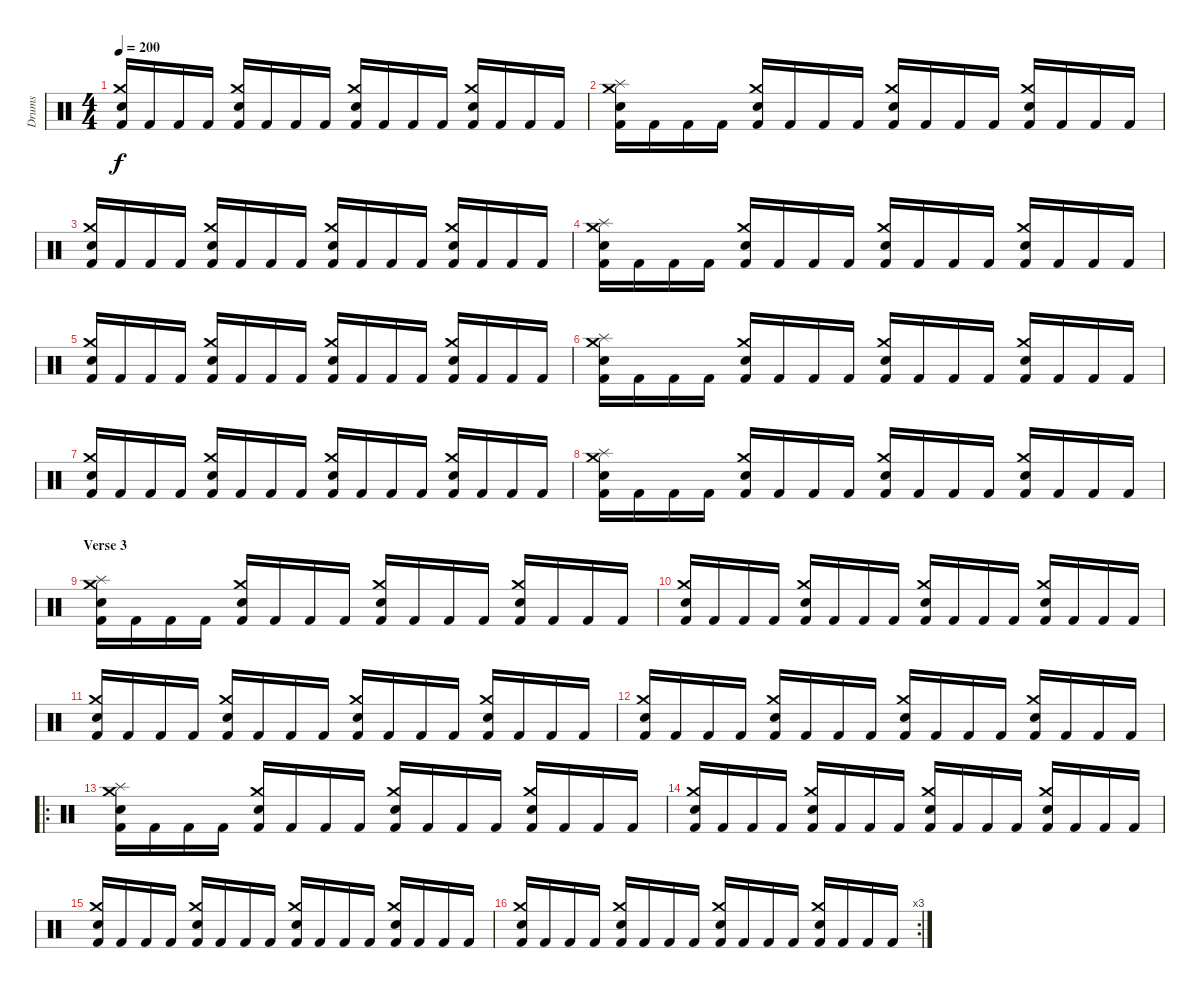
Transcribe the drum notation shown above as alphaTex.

\track ("Drums" "Drums") {instrument percussion}
\staff {score}
\articulation defaults
\ts (4 4)
\tempo 200
\clef neutral
\ks c
("Kick (hit) 2" "Crash medium (hit)" "Snare (hit) 2").16{dy f} "Kick (hit) 2".16 "Kick (hit) 2".16 "Kick (hit) 2".16 ("Kick (hit) 2" "Crash medium (hit)" "Snare (hit) 2").16 "Kick (hit) 2".16 "Kick (hit) 2".16 "Kick (hit) 2".16 ("Kick (hit) 2" "Crash medium (hit)" "Snare (hit) 2").16 "Kick (hit) 2".16 "Kick (hit) 2".16 "Kick (hit) 2".16 ("Kick (hit) 2" "Crash medium (hit)" "Snare (hit) 2").16 "Kick (hit) 2".16 "Kick (hit) 2".16 "Kick (hit) 2".16 |
("Kick (hit) 2" "Crash medium (hit)" "Snare (hit) 2" "Splash (hit)").16 "Kick (hit) 2".16 "Kick (hit) 2".16 "Kick (hit) 2".16 ("Kick (hit) 2" "Crash medium (hit)" "Snare (hit) 2").16 "Kick (hit) 2".16 "Kick (hit) 2".16 "Kick (hit) 2".16 ("Kick (hit) 2" "Crash medium (hit)" "Snare (hit) 2").16 "Kick (hit) 2".16 "Kick (hit) 2".16 "Kick (hit) 2".16 ("Kick (hit) 2" "Crash medium (hit)" "Snare (hit) 2").16 "Kick (hit) 2".16 "Kick (hit) 2".16 "Kick (hit) 2".16 |
("Kick (hit) 2" "Crash medium (hit)" "Snare (hit) 2").16 "Kick (hit) 2".16 "Kick (hit) 2".16 "Kick (hit) 2".16 ("Kick (hit) 2" "Crash medium (hit)" "Snare (hit) 2").16 "Kick (hit) 2".16 "Kick (hit) 2".16 "Kick (hit) 2".16 ("Kick (hit) 2" "Crash medium (hit)" "Snare (hit) 2").16 "Kick (hit) 2".16 "Kick (hit) 2".16 "Kick (hit) 2".16 ("Kick (hit) 2" "Crash medium (hit)" "Snare (hit) 2").16 "Kick (hit) 2".16 "Kick (hit) 2".16 "Kick (hit) 2".16 |
("Kick (hit) 2" "Crash medium (hit)" "Snare (hit) 2" "Splash (hit)").16 "Kick (hit) 2".16 "Kick (hit) 2".16 "Kick (hit) 2".16 ("Kick (hit) 2" "Crash medium (hit)" "Snare (hit) 2").16 "Kick (hit) 2".16 "Kick (hit) 2".16 "Kick (hit) 2".16 ("Kick (hit) 2" "Crash medium (hit)" "Snare (hit) 2").16 "Kick (hit) 2".16 "Kick (hit) 2".16 "Kick (hit) 2".16 ("Kick (hit) 2" "Crash medium (hit)" "Snare (hit) 2").16 "Kick (hit) 2".16 "Kick (hit) 2".16 "Kick (hit) 2".16 |
("Kick (hit) 2" "Crash medium (hit)" "Snare (hit) 2").16 "Kick (hit) 2".16 "Kick (hit) 2".16 "Kick (hit) 2".16 ("Kick (hit) 2" "Crash medium (hit)" "Snare (hit) 2").16 "Kick (hit) 2".16 "Kick (hit) 2".16 "Kick (hit) 2".16 ("Kick (hit) 2" "Crash medium (hit)" "Snare (hit) 2").16 "Kick (hit) 2".16 "Kick (hit) 2".16 "Kick (hit) 2".16 ("Kick (hit) 2" "Crash medium (hit)" "Snare (hit) 2").16 "Kick (hit) 2".16 "Kick (hit) 2".16 "Kick (hit) 2".16 |
("Kick (hit) 2" "Crash medium (hit)" "Snare (hit) 2" "Splash (hit)").16 "Kick (hit) 2".16 "Kick (hit) 2".16 "Kick (hit) 2".16 ("Kick (hit) 2" "Crash medium (hit)" "Snare (hit) 2").16 "Kick (hit) 2".16 "Kick (hit) 2".16 "Kick (hit) 2".16 ("Kick (hit) 2" "Crash medium (hit)" "Snare (hit) 2").16 "Kick (hit) 2".16 "Kick (hit) 2".16 "Kick (hit) 2".16 ("Kick (hit) 2" "Crash medium (hit)" "Snare (hit) 2").16 "Kick (hit) 2".16 "Kick (hit) 2".16 "Kick (hit) 2".16 |
("Kick (hit) 2" "Crash medium (hit)" "Snare (hit) 2").16 "Kick (hit) 2".16 "Kick (hit) 2".16 "Kick (hit) 2".16 ("Kick (hit) 2" "Crash medium (hit)" "Snare (hit) 2").16 "Kick (hit) 2".16 "Kick (hit) 2".16 "Kick (hit) 2".16 ("Kick (hit) 2" "Crash medium (hit)" "Snare (hit) 2").16 "Kick (hit) 2".16 "Kick (hit) 2".16 "Kick (hit) 2".16 ("Kick (hit) 2" "Crash medium (hit)" "Snare (hit) 2").16 "Kick (hit) 2".16 "Kick (hit) 2".16 "Kick (hit) 2".16 |
("Kick (hit) 2" "Crash medium (hit)" "Snare (hit) 2" "Splash (hit)").16 "Kick (hit) 2".16 "Kick (hit) 2".16 "Kick (hit) 2".16 ("Kick (hit) 2" "Crash medium (hit)" "Snare (hit) 2").16 "Kick (hit) 2".16 "Kick (hit) 2".16 "Kick (hit) 2".16 ("Kick (hit) 2" "Crash medium (hit)" "Snare (hit) 2").16 "Kick (hit) 2".16 "Kick (hit) 2".16 "Kick (hit) 2".16 ("Kick (hit) 2" "Crash medium (hit)" "Snare (hit) 2").16 "Kick (hit) 2".16 "Kick (hit) 2".16 "Kick (hit) 2".16 |
\section ("" "Verse 3")
("Kick (hit) 2" "Crash medium (hit)" "Snare (hit) 2" "Splash (hit)").16 "Kick (hit) 2".16 "Kick (hit) 2".16 "Kick (hit) 2".16 ("Kick (hit) 2" "Crash medium (hit)" "Snare (hit) 2").16 "Kick (hit) 2".16 "Kick (hit) 2".16 "Kick (hit) 2".16 ("Kick (hit) 2" "Crash medium (hit)" "Snare (hit) 2").16 "Kick (hit) 2".16 "Kick (hit) 2".16 "Kick (hit) 2".16 ("Kick (hit) 2" "Crash medium (hit)" "Snare (hit) 2").16 "Kick (hit) 2".16 "Kick (hit) 2".16 "Kick (hit) 2".16 |
("Kick (hit) 2" "Crash medium (hit)" "Snare (hit) 2").16 "Kick (hit) 2".16 "Kick (hit) 2".16 "Kick (hit) 2".16 ("Kick (hit) 2" "Crash medium (hit)" "Snare (hit) 2").16 "Kick (hit) 2".16 "Kick (hit) 2".16 "Kick (hit) 2".16 ("Kick (hit) 2" "Crash medium (hit)" "Snare (hit) 2").16 "Kick (hit) 2".16 "Kick (hit) 2".16 "Kick (hit) 2".16 ("Kick (hit) 2" "Crash medium (hit)" "Snare (hit) 2").16 "Kick (hit) 2".16 "Kick (hit) 2".16 "Kick (hit) 2".16 |
("Kick (hit) 2" "Crash medium (hit)" "Snare (hit) 2").16 "Kick (hit) 2".16 "Kick (hit) 2".16 "Kick (hit) 2".16 ("Kick (hit) 2" "Crash medium (hit)" "Snare (hit) 2").16 "Kick (hit) 2".16 "Kick (hit) 2".16 "Kick (hit) 2".16 ("Kick (hit) 2" "Crash medium (hit)" "Snare (hit) 2").16 "Kick (hit) 2".16 "Kick (hit) 2".16 "Kick (hit) 2".16 ("Kick (hit) 2" "Crash medium (hit)" "Snare (hit) 2").16 "Kick (hit) 2".16 "Kick (hit) 2".16 "Kick (hit) 2".16 |
("Kick (hit) 2" "Crash medium (hit)" "Snare (hit) 2").16 "Kick (hit) 2".16 "Kick (hit) 2".16 "Kick (hit) 2".16 ("Kick (hit) 2" "Crash medium (hit)" "Snare (hit) 2").16 "Kick (hit) 2".16 "Kick (hit) 2".16 "Kick (hit) 2".16 ("Kick (hit) 2" "Crash medium (hit)" "Snare (hit) 2").16 "Kick (hit) 2".16 "Kick (hit) 2".16 "Kick (hit) 2".16 ("Kick (hit) 2" "Crash medium (hit)" "Snare (hit) 2").16 "Kick (hit) 2".16 "Kick (hit) 2".16 "Kick (hit) 2".16 |
\ro
("Kick (hit) 2" "Crash medium (hit)" "Snare (hit) 2" "Splash (hit)").16 "Kick (hit) 2".16 "Kick (hit) 2".16 "Kick (hit) 2".16 ("Kick (hit) 2" "Crash medium (hit)" "Snare (hit) 2").16 "Kick (hit) 2".16 "Kick (hit) 2".16 "Kick (hit) 2".16 ("Kick (hit) 2" "Crash medium (hit)" "Snare (hit) 2").16 "Kick (hit) 2".16 "Kick (hit) 2".16 "Kick (hit) 2".16 ("Kick (hit) 2" "Crash medium (hit)" "Snare (hit) 2").16 "Kick (hit) 2".16 "Kick (hit) 2".16 "Kick (hit) 2".16 |
("Kick (hit) 2" "Crash medium (hit)" "Snare (hit) 2").16 "Kick (hit) 2".16 "Kick (hit) 2".16 "Kick (hit) 2".16 ("Kick (hit) 2" "Crash medium (hit)" "Snare (hit) 2").16 "Kick (hit) 2".16 "Kick (hit) 2".16 "Kick (hit) 2".16 ("Kick (hit) 2" "Crash medium (hit)" "Snare (hit) 2").16 "Kick (hit) 2".16 "Kick (hit) 2".16 "Kick (hit) 2".16 ("Kick (hit) 2" "Crash medium (hit)" "Snare (hit) 2").16 "Kick (hit) 2".16 "Kick (hit) 2".16 "Kick (hit) 2".16 |
("Kick (hit) 2" "Crash medium (hit)" "Snare (hit) 2").16 "Kick (hit) 2".16 "Kick (hit) 2".16 "Kick (hit) 2".16 ("Kick (hit) 2" "Crash medium (hit)" "Snare (hit) 2").16 "Kick (hit) 2".16 "Kick (hit) 2".16 "Kick (hit) 2".16 ("Kick (hit) 2" "Crash medium (hit)" "Snare (hit) 2").16 "Kick (hit) 2".16 "Kick (hit) 2".16 "Kick (hit) 2".16 ("Kick (hit) 2" "Crash medium (hit)" "Snare (hit) 2").16 "Kick (hit) 2".16 "Kick (hit) 2".16 "Kick (hit) 2".16 |
\rc 3
("Kick (hit) 2" "Crash medium (hit)" "Snare (hit) 2").16 "Kick (hit) 2".16 "Kick (hit) 2".16 "Kick (hit) 2".16 ("Kick (hit) 2" "Crash medium (hit)" "Snare (hit) 2").16 "Kick (hit) 2".16 "Kick (hit) 2".16 "Kick (hit) 2".16 ("Kick (hit) 2" "Crash medium (hit)" "Snare (hit) 2").16 "Kick (hit) 2".16 "Kick (hit) 2".16 "Kick (hit) 2".16 ("Kick (hit) 2" "Crash medium (hit)" "Snare (hit) 2").16 "Kick (hit) 2".16 "Kick (hit) 2".16 "Kick (hit) 2".16
